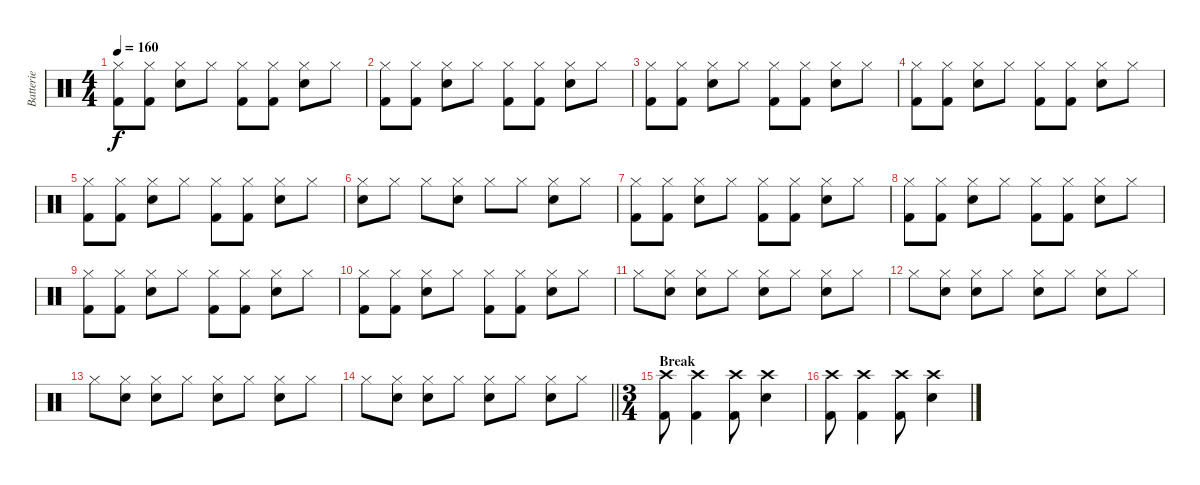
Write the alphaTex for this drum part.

\track ("Batterie" "Batterie") {instrument percussion}
\staff {score}
\articulation defaults
\ts (4 4)
\tempo 160
\clef neutral
\ks c
("Hi-Hat (closed)" "Kick (hit) 2").8{dy f} ("Hi-Hat (closed)" "Kick (hit) 2").8 ("Hi-Hat (closed)" "Electric Snare (hit)").8 "Hi-Hat (closed)".8 ("Hi-Hat (closed)" "Kick (hit) 2").8 ("Hi-Hat (closed)" "Kick (hit) 2").8 ("Hi-Hat (closed)" "Electric Snare (hit)").8 "Hi-Hat (closed)".8 |
("Hi-Hat (closed)" "Kick (hit) 2").8 ("Hi-Hat (closed)" "Kick (hit) 2").8 ("Hi-Hat (closed)" "Electric Snare (hit)").8 "Hi-Hat (closed)".8 ("Hi-Hat (closed)" "Kick (hit) 2").8 ("Hi-Hat (closed)" "Kick (hit) 2").8 ("Hi-Hat (closed)" "Electric Snare (hit)").8 "Hi-Hat (closed)".8 |
("Hi-Hat (closed)" "Kick (hit) 2").8 ("Hi-Hat (closed)" "Kick (hit) 2").8 ("Hi-Hat (closed)" "Electric Snare (hit)").8 "Hi-Hat (closed)".8 ("Hi-Hat (closed)" "Kick (hit) 2").8 ("Hi-Hat (closed)" "Kick (hit) 2").8 ("Hi-Hat (closed)" "Electric Snare (hit)").8 "Hi-Hat (closed)".8 |
("Hi-Hat (closed)" "Kick (hit) 2").8 ("Hi-Hat (closed)" "Kick (hit) 2").8 ("Hi-Hat (closed)" "Electric Snare (hit)").8 "Hi-Hat (closed)".8 ("Hi-Hat (closed)" "Kick (hit) 2").8 ("Hi-Hat (closed)" "Kick (hit) 2").8 ("Hi-Hat (closed)" "Electric Snare (hit)").8 "Hi-Hat (closed)".8 |
("Hi-Hat (closed)" "Kick (hit) 2").8 ("Hi-Hat (closed)" "Kick (hit) 2").8 ("Hi-Hat (closed)" "Electric Snare (hit)").8 "Hi-Hat (closed)".8 ("Hi-Hat (closed)" "Kick (hit) 2").8 ("Hi-Hat (closed)" "Kick (hit) 2").8 ("Hi-Hat (closed)" "Electric Snare (hit)").8 "Hi-Hat (closed)".8 |
("Hi-Hat (closed)" "Electric Snare (hit)").8 "Hi-Hat (closed)".8 "Hi-Hat (closed)".8 ("Hi-Hat (closed)" "Electric Snare (hit)").8 "Hi-Hat (closed)".8 "Hi-Hat (closed)".8 ("Hi-Hat (closed)" "Electric Snare (hit)").8 "Hi-Hat (closed)".8 |
("Hi-Hat (closed)" "Kick (hit) 2").8 ("Hi-Hat (closed)" "Kick (hit) 2").8 ("Hi-Hat (closed)" "Electric Snare (hit)").8 "Hi-Hat (closed)".8 ("Hi-Hat (closed)" "Kick (hit) 2").8 ("Hi-Hat (closed)" "Kick (hit) 2").8 ("Hi-Hat (closed)" "Electric Snare (hit)").8 "Hi-Hat (closed)".8 |
("Hi-Hat (closed)" "Kick (hit) 2").8 ("Hi-Hat (closed)" "Kick (hit) 2").8 ("Hi-Hat (closed)" "Electric Snare (hit)").8 "Hi-Hat (closed)".8 ("Hi-Hat (closed)" "Kick (hit) 2").8 ("Hi-Hat (closed)" "Kick (hit) 2").8 ("Hi-Hat (closed)" "Electric Snare (hit)").8 "Hi-Hat (closed)".8 |
("Hi-Hat (closed)" "Kick (hit) 2").8 ("Hi-Hat (closed)" "Kick (hit) 2").8 ("Hi-Hat (closed)" "Electric Snare (hit)").8 "Hi-Hat (closed)".8 ("Hi-Hat (closed)" "Kick (hit) 2").8 ("Hi-Hat (closed)" "Kick (hit) 2").8 ("Hi-Hat (closed)" "Electric Snare (hit)").8 "Hi-Hat (closed)".8 |
("Hi-Hat (closed)" "Kick (hit) 2").8 ("Hi-Hat (closed)" "Kick (hit) 2").8 ("Hi-Hat (closed)" "Electric Snare (hit)").8 "Hi-Hat (closed)".8 ("Hi-Hat (closed)" "Kick (hit) 2").8 ("Hi-Hat (closed)" "Kick (hit) 2").8 ("Hi-Hat (closed)" "Electric Snare (hit)").8 "Hi-Hat (closed)".8 |
"Hi-Hat (closed)".8 ("Hi-Hat (closed)" "Electric Snare (hit)").8 ("Hi-Hat (closed)" "Electric Snare (hit)").8 "Hi-Hat (closed)".8 ("Hi-Hat (closed)" "Electric Snare (hit)").8 "Hi-Hat (closed)".8 ("Hi-Hat (closed)" "Electric Snare (hit)").8 "Hi-Hat (closed)".8 |
"Hi-Hat (closed)".8 ("Hi-Hat (closed)" "Electric Snare (hit)").8 ("Hi-Hat (closed)" "Electric Snare (hit)").8 "Hi-Hat (closed)".8 ("Hi-Hat (closed)" "Electric Snare (hit)").8 "Hi-Hat (closed)".8 ("Hi-Hat (closed)" "Electric Snare (hit)").8 "Hi-Hat (closed)".8 |
"Hi-Hat (closed)".8 ("Hi-Hat (closed)" "Electric Snare (hit)").8 ("Hi-Hat (closed)" "Electric Snare (hit)").8 "Hi-Hat (closed)".8 ("Hi-Hat (closed)" "Electric Snare (hit)").8 "Hi-Hat (closed)".8 ("Hi-Hat (closed)" "Electric Snare (hit)").8 "Hi-Hat (closed)".8 |
\barLineRight lightlight "Hi-Hat (closed)".8
("Hi-Hat (closed)" "Electric Snare (hit)").8 ("Hi-Hat (closed)" "Electric Snare (hit)").8 "Hi-Hat (closed)".8 ("Hi-Hat (closed)" "Electric Snare (hit)").8 "Hi-Hat (closed)".8 ("Hi-Hat (closed)" "Electric Snare (hit)").8 "Hi-Hat (closed)".8 |
\ts (3 4)
\section ("" "Break")
("Crash high (hit)" "Kick (hit) 2").8 ("Crash high (hit)" "Kick (hit) 2").4 ("Crash high (hit)" "Kick (hit) 2").8 ("Crash high (hit)" "Snare (hit) 2").4 |
("Crash high (hit)" "Kick (hit) 2").8 ("Crash high (hit)" "Kick (hit) 2").4 ("Crash high (hit)" "Kick (hit) 2").8 ("Crash high (hit)" "Snare (hit) 2").4
